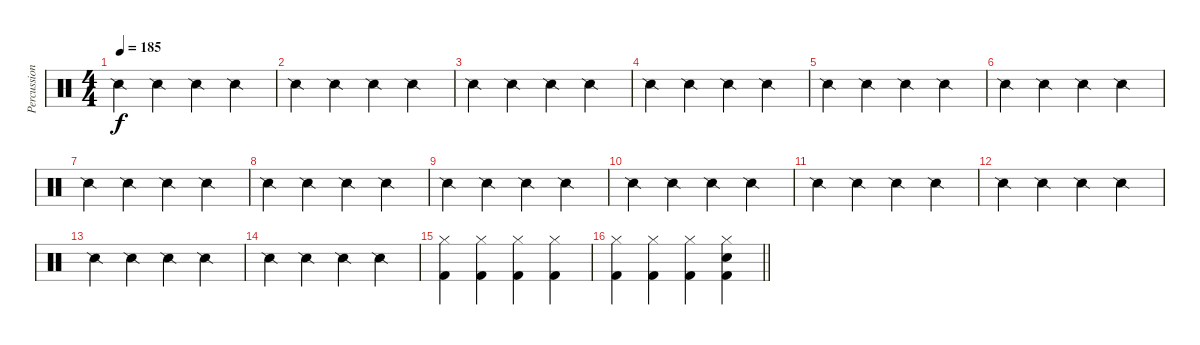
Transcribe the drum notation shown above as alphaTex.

\track ("Percussion" "Percussion") {instrument percussion}
\staff {score}
\articulation defaults
\ts (4 4)
\tempo 185
\clef neutral
\ks c "Snare (side stick) 2".4{dy f} "Snare (side stick) 2".4 "Snare (side stick) 2".4 "Snare (side stick) 2".4
|
"Snare (side stick) 2".4 "Snare (side stick) 2".4 "Snare (side stick) 2".4 "Snare (side stick) 2".4 |
"Snare (side stick) 2".4 "Snare (side stick) 2".4 "Snare (side stick) 2".4 "Snare (side stick) 2".4 |
"Snare (side stick) 2".4 "Snare (side stick) 2".4 "Snare (side stick) 2".4 "Snare (side stick) 2".4 |
"Snare (side stick) 2".4 "Snare (side stick) 2".4 "Snare (side stick) 2".4 "Snare (side stick) 2".4 |
"Snare (side stick) 2".4 "Snare (side stick) 2".4 "Snare (side stick) 2".4 "Snare (side stick) 2".4 |
"Snare (side stick) 2".4 "Snare (side stick) 2".4 "Snare (side stick) 2".4 "Snare (side stick) 2".4 |
"Snare (side stick) 2".4 "Snare (side stick) 2".4 "Snare (side stick) 2".4 "Snare (side stick) 2".4 |
"Snare (side stick) 2".4 "Snare (side stick) 2".4 "Snare (side stick) 2".4 "Snare (side stick) 2".4 |
"Snare (side stick) 2".4 "Snare (side stick) 2".4 "Snare (side stick) 2".4 "Snare (side stick) 2".4 |
"Snare (side stick) 2".4 "Snare (side stick) 2".4 "Snare (side stick) 2".4 "Snare (side stick) 2".4 |
"Snare (side stick) 2".4 "Snare (side stick) 2".4 "Snare (side stick) 2".4 "Snare (side stick) 2".4 |
"Snare (side stick) 2".4 "Snare (side stick) 2".4 "Snare (side stick) 2".4 "Snare (side stick) 2".4 |
"Snare (side stick) 2".4 "Snare (side stick) 2".4 "Snare (side stick) 2".4 "Snare (side stick) 2".4 |
("Hi-Hat (closed)" "Kick (hit) 2").4 ("Hi-Hat (closed)" "Kick (hit) 2").4 ("Hi-Hat (closed)" "Kick (hit) 2").4 ("Hi-Hat (closed)" "Kick (hit) 2").4 |
\barLineRight lightlight
("Hi-Hat (closed)" "Kick (hit) 2").4 ("Hi-Hat (closed)" "Kick (hit) 2").4 ("Hi-Hat (closed)" "Kick (hit) 2").4 ("Hi-Hat (closed)" "Snare (hit) 2" "Kick (hit) 2").4
